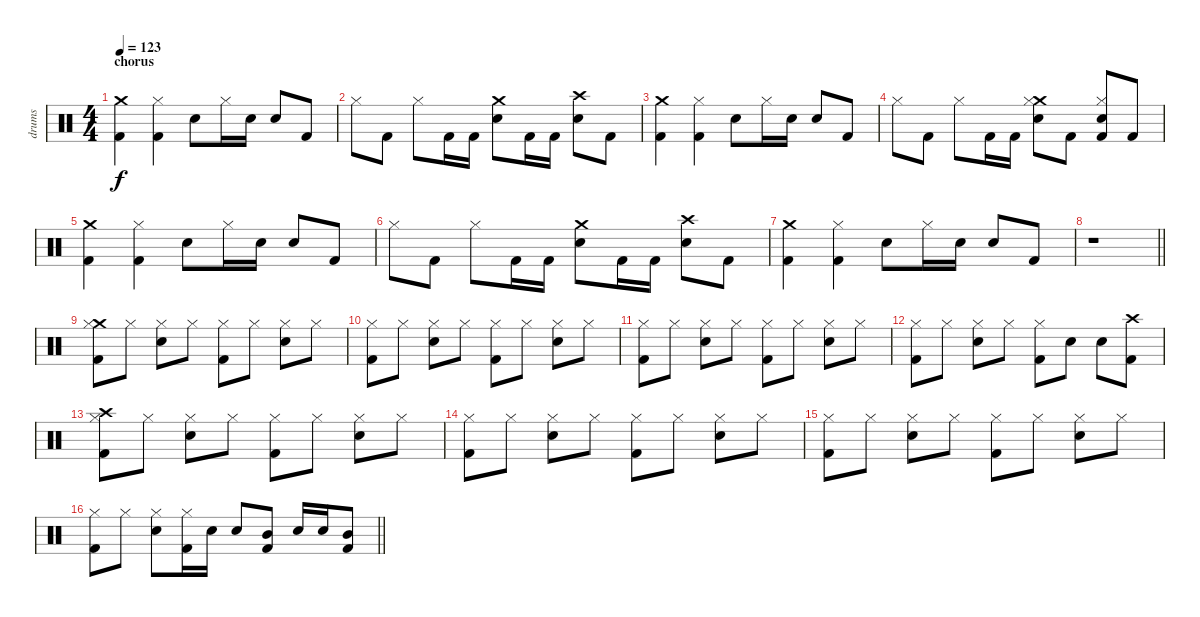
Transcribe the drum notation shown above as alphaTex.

\track ("drums" "drums") {instrument percussion}
\staff {score}
\articulation defaults
\ts (4 4)
\section ("" "chorus")
\tempo 123
\clef neutral
\ks c
("Crash medium (hit)" "Kick (hit) 2").4{dy f} ("Hi-Hat (closed)" "Kick (hit) 2").4 "Snare (hit) 2".8 "Hi-Hat (closed)".16 "Snare (hit) 2".16 "Snare (hit) 2".8 "Kick (hit) 2".8 |
"Hi-Hat (closed)".8 "Kick (hit) 2".8 "Hi-Hat (closed)".8 "Kick (hit) 2".16 "Kick (hit) 2".16 ("Crash medium (hit)" "Snare (hit) 2").8 "Kick (hit) 2".16 "Kick (hit) 2".16 ("Crash high (hit)" "Snare (hit) 2").8 "Kick (hit) 2".8 |
("Crash medium (hit)" "Kick (hit) 2").4 ("Hi-Hat (closed)" "Kick (hit) 2").4 "Snare (hit) 2".8 "Hi-Hat (closed)".16 "Snare (hit) 2".16 "Snare (hit) 2".8 "Kick (hit) 2".8 |
"Hi-Hat (closed)".8 "Kick (hit) 2".8 "Hi-Hat (closed)".8 "Kick (hit) 2".16 "Kick (hit) 2".16 ("Crash medium (hit)" "Hi-Hat (closed)" "Snare (hit) 2").8 "Kick (hit) 2".8 ("Hi-Hat (closed)" "Snare (hit) 2" "Kick (hit) 2").8 "Kick (hit) 2".8 |
("Crash medium (hit)" "Kick (hit) 2").4 ("Hi-Hat (closed)" "Kick (hit) 2").4 "Snare (hit) 2".8 "Hi-Hat (closed)".16 "Snare (hit) 2".16 "Snare (hit) 2".8 "Kick (hit) 2".8 |
"Hi-Hat (closed)".8 "Kick (hit) 2".8 "Hi-Hat (closed)".8 "Kick (hit) 2".16 "Kick (hit) 2".16 ("Crash medium (hit)" "Snare (hit) 2").8 "Kick (hit) 2".16 "Kick (hit) 2".16 ("Crash high (hit)" "Snare (hit) 2").8 "Kick (hit) 2".8 |
("Crash medium (hit)" "Kick (hit) 2").4 ("Hi-Hat (closed)" "Kick (hit) 2").4 "Snare (hit) 2".8 "Hi-Hat (closed)".16 "Snare (hit) 2".16 "Snare (hit) 2".8 "Kick (hit) 2".8 |
\barLineRight lightlight
r.1 |
("Crash medium (hit)" "Hi-Hat (closed)" "Kick (hit) 2").8 "Hi-Hat (closed)".8 ("Hi-Hat (closed)" "Snare (hit) 2").8 "Hi-Hat (closed)".8 ("Hi-Hat (closed)" "Kick (hit) 2").8 "Hi-Hat (closed)".8 ("Hi-Hat (closed)" "Snare (hit) 2").8 "Hi-Hat (closed)".8 |
("Hi-Hat (closed)" "Kick (hit) 2").8 "Hi-Hat (closed)".8 ("Hi-Hat (closed)" "Snare (hit) 2").8 "Hi-Hat (closed)".8 ("Hi-Hat (closed)" "Kick (hit) 2").8 "Hi-Hat (closed)".8 ("Hi-Hat (closed)" "Snare (hit) 2").8 "Hi-Hat (closed)".8 |
("Hi-Hat (closed)" "Kick (hit) 2").8 "Hi-Hat (closed)".8 ("Hi-Hat (closed)" "Snare (hit) 2").8 "Hi-Hat (closed)".8 ("Hi-Hat (closed)" "Kick (hit) 2").8 "Hi-Hat (closed)".8 ("Hi-Hat (closed)" "Snare (hit) 2").8 "Hi-Hat (closed)".8 |
("Hi-Hat (closed)" "Kick (hit) 2").8 "Hi-Hat (closed)".8 ("Hi-Hat (closed)" "Snare (hit) 2").8 "Hi-Hat (closed)".8 ("Hi-Hat (closed)" "Kick (hit) 2").8 "Snare (hit) 2".8 "Snare (hit) 2".8 ("Crash high (hit)" "Kick (hit) 2").8 |
("Crash high (hit)" "Hi-Hat (closed)" "Kick (hit) 2").8 "Hi-Hat (closed)".8 ("Hi-Hat (closed)" "Snare (hit) 2").8 "Hi-Hat (closed)".8 ("Hi-Hat (closed)" "Kick (hit) 2").8 "Hi-Hat (closed)".8 ("Hi-Hat (closed)" "Snare (hit) 2").8 "Hi-Hat (closed)".8 |
("Hi-Hat (closed)" "Kick (hit) 2").8 "Hi-Hat (closed)".8 ("Hi-Hat (closed)" "Snare (hit) 2").8 "Hi-Hat (closed)".8 ("Hi-Hat (closed)" "Kick (hit) 2").8 "Hi-Hat (closed)".8 ("Hi-Hat (closed)" "Snare (hit) 2").8 "Hi-Hat (closed)".8 |
("Hi-Hat (closed)" "Kick (hit) 2").8 "Hi-Hat (closed)".8 ("Hi-Hat (closed)" "Snare (hit) 2").8 "Hi-Hat (closed)".8 ("Hi-Hat (closed)" "Kick (hit) 2").8 "Hi-Hat (closed)".8 ("Hi-Hat (closed)" "Snare (hit) 2").8 "Hi-Hat (closed)".8 |
\barLineRight lightlight
("Hi-Hat (closed)" "Kick (hit) 2").8 "Hi-Hat (closed)".8 ("Hi-Hat (closed)" "Snare (hit) 2").8 ("Hi-Hat (closed)" "Kick (hit) 2").16 "Snare (hit) 2".16 "Snare (hit) 2".8 ("Mid Tom (hit)" "Kick (hit) 2").8 "Snare (hit) 2".16 "Snare (hit) 2".16 ("Mid Tom (hit)" "Kick (hit) 2").8
